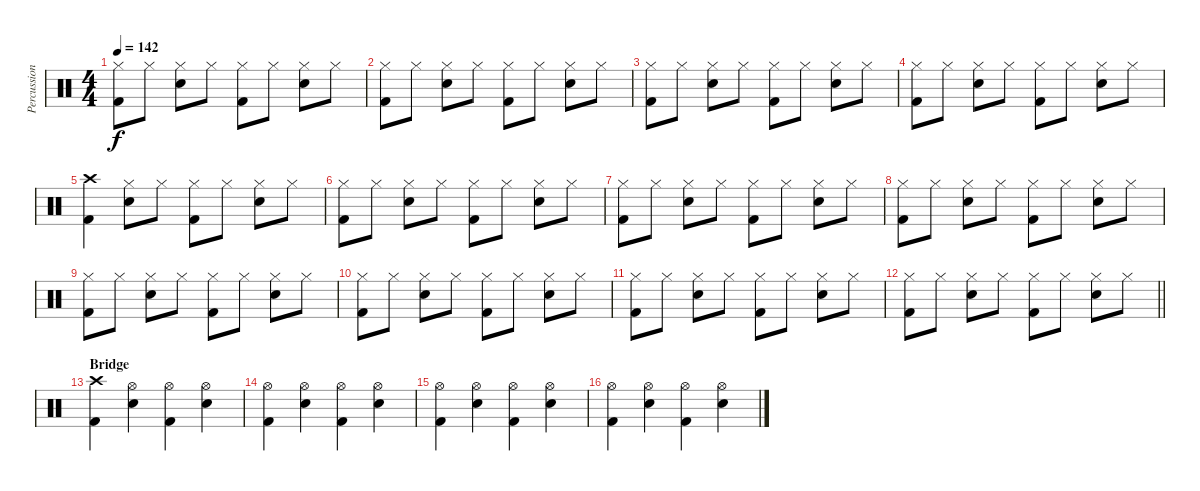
\track ("Percussion" "Percussion") {instrument percussion}
\staff {score}
\articulation defaults
\ts (4 4)
\tempo 142
\clef neutral
\ks c
("Hi-Hat (closed)" "Kick (hit) 2").8{dy f} "Hi-Hat (closed)".8 ("Hi-Hat (closed)" "Snare (hit) 2").8 "Hi-Hat (closed)".8 ("Hi-Hat (closed)" "Kick (hit) 2").8 "Hi-Hat (closed)".8 ("Hi-Hat (closed)" "Snare (hit) 2").8 "Hi-Hat (closed)".8 |
("Hi-Hat (closed)" "Kick (hit) 2").8 "Hi-Hat (closed)".8 ("Hi-Hat (closed)" "Snare (hit) 2").8 "Hi-Hat (closed)".8 ("Hi-Hat (closed)" "Kick (hit) 2").8 "Hi-Hat (closed)".8 ("Hi-Hat (closed)" "Snare (hit) 2").8 "Hi-Hat (closed)".8 |
("Hi-Hat (closed)" "Kick (hit) 2").8 "Hi-Hat (closed)".8 ("Hi-Hat (closed)" "Snare (hit) 2").8 "Hi-Hat (closed)".8 ("Hi-Hat (closed)" "Kick (hit) 2").8 "Hi-Hat (closed)".8 ("Hi-Hat (closed)" "Snare (hit) 2").8 "Hi-Hat (closed)".8 |
("Hi-Hat (closed)" "Kick (hit) 2").8 "Hi-Hat (closed)".8 ("Hi-Hat (closed)" "Snare (hit) 2").8 "Hi-Hat (closed)".8 ("Hi-Hat (closed)" "Kick (hit) 2").8 "Hi-Hat (closed)".8 ("Hi-Hat (closed)" "Snare (hit) 2").8 "Hi-Hat (closed)".8 |
("Crash high (hit)" "Kick (hit) 2").4 ("Hi-Hat (closed)" "Snare (hit) 2").8 "Hi-Hat (closed)".8 ("Hi-Hat (closed)" "Kick (hit) 2").8 "Hi-Hat (closed)".8 ("Hi-Hat (closed)" "Snare (hit) 2").8 "Hi-Hat (closed)".8 |
("Hi-Hat (closed)" "Kick (hit) 2").8 "Hi-Hat (closed)".8 ("Hi-Hat (closed)" "Snare (hit) 2").8 "Hi-Hat (closed)".8 ("Hi-Hat (closed)" "Kick (hit) 2").8 "Hi-Hat (closed)".8 ("Hi-Hat (closed)" "Snare (hit) 2").8 "Hi-Hat (closed)".8 |
("Hi-Hat (closed)" "Kick (hit) 2").8 "Hi-Hat (closed)".8 ("Hi-Hat (closed)" "Snare (hit) 2").8 "Hi-Hat (closed)".8 ("Hi-Hat (closed)" "Kick (hit) 2").8 "Hi-Hat (closed)".8 ("Hi-Hat (closed)" "Snare (hit) 2").8 "Hi-Hat (closed)".8 |
("Hi-Hat (closed)" "Kick (hit) 2").8 "Hi-Hat (closed)".8 ("Hi-Hat (closed)" "Snare (hit) 2").8 "Hi-Hat (closed)".8 ("Hi-Hat (closed)" "Kick (hit) 2").8 "Hi-Hat (closed)".8 ("Hi-Hat (closed)" "Snare (hit) 2").8 "Hi-Hat (closed)".8 |
("Hi-Hat (closed)" "Kick (hit) 2").8 "Hi-Hat (closed)".8 ("Hi-Hat (closed)" "Snare (hit) 2").8 "Hi-Hat (closed)".8 ("Hi-Hat (closed)" "Kick (hit) 2").8 "Hi-Hat (closed)".8 ("Hi-Hat (closed)" "Snare (hit) 2").8 "Hi-Hat (closed)".8 |
("Hi-Hat (closed)" "Kick (hit) 2").8 "Hi-Hat (closed)".8 ("Hi-Hat (closed)" "Snare (hit) 2").8 "Hi-Hat (closed)".8 ("Hi-Hat (closed)" "Kick (hit) 2").8 "Hi-Hat (closed)".8 ("Hi-Hat (closed)" "Snare (hit) 2").8 "Hi-Hat (closed)".8 |
("Hi-Hat (closed)" "Kick (hit) 2").8 "Hi-Hat (closed)".8 ("Hi-Hat (closed)" "Snare (hit) 2").8 "Hi-Hat (closed)".8 ("Hi-Hat (closed)" "Kick (hit) 2").8 "Hi-Hat (closed)".8 ("Hi-Hat (closed)" "Snare (hit) 2").8 "Hi-Hat (closed)".8 |
\barLineRight lightlight
("Hi-Hat (closed)" "Kick (hit) 2").8 "Hi-Hat (closed)".8 ("Hi-Hat (closed)" "Snare (hit) 2").8 "Hi-Hat (closed)".8 ("Hi-Hat (closed)" "Kick (hit) 2").8 "Hi-Hat (closed)".8 ("Hi-Hat (closed)" "Snare (hit) 2").8 "Hi-Hat (closed)".8 |
\section ("" "Bridge")
("Crash high (hit)" "Kick (hit) 2").4 ("Hi-Hat (open)" "Snare (hit) 2").4 ("Hi-Hat (open)" "Kick (hit) 2").4 ("Hi-Hat (open)" "Snare (hit) 2").4 |
("Hi-Hat (open)" "Kick (hit) 2").4 ("Hi-Hat (open)" "Snare (hit) 2").4 ("Hi-Hat (open)" "Kick (hit) 2").4 ("Hi-Hat (open)" "Snare (hit) 2").4 |
("Hi-Hat (open)" "Kick (hit) 2").4 ("Hi-Hat (open)" "Snare (hit) 2").4 ("Hi-Hat (open)" "Kick (hit) 2").4 ("Hi-Hat (open)" "Snare (hit) 2").4 |
("Hi-Hat (open)" "Kick (hit) 2").4 ("Hi-Hat (open)" "Snare (hit) 2").4 ("Hi-Hat (open)" "Kick (hit) 2").4 ("Hi-Hat (open)" "Snare (hit) 2").4
